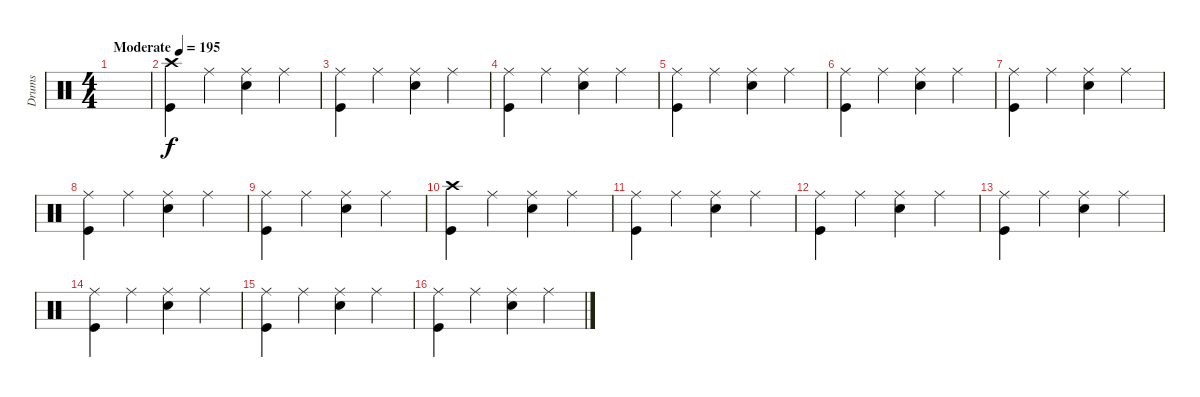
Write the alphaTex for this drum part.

\track ("Drums" "Drums") {instrument percussion}
\staff {score}
\articulation defaults
\ts (4 4)
\tempo (195 "Moderate")
\clef neutral
\ks c
|
("Crash high (hit)" "Kick (hit)").4 "Ride (middle)".4 ("Ride (middle)" "Electric Snare (hit)").4 "Ride (middle)".4 |
("Ride (middle)" "Kick (hit)").4 "Ride (middle)".4 ("Ride (middle)" "Electric Snare (hit)").4 "Ride (middle)".4 |
("Ride (middle)" "Kick (hit)").4 "Ride (middle)".4 ("Ride (middle)" "Electric Snare (hit)").4 "Ride (middle)".4 |
("Ride (middle)" "Kick (hit)").4 "Ride (middle)".4 ("Ride (middle)" "Electric Snare (hit)").4 "Ride (middle)".4 |
("Ride (middle)" "Kick (hit)").4 "Ride (middle)".4 ("Ride (middle)" "Electric Snare (hit)").4 "Ride (middle)".4 |
("Ride (middle)" "Kick (hit)").4 "Ride (middle)".4 ("Ride (middle)" "Electric Snare (hit)").4 "Ride (middle)".4 |
("Ride (middle)" "Kick (hit)").4 "Ride (middle)".4 ("Ride (middle)" "Electric Snare (hit)").4 "Ride (middle)".4 |
("Ride (middle)" "Kick (hit)").4 "Ride (middle)".4 ("Ride (middle)" "Electric Snare (hit)").4 "Ride (middle)".4 |
("Crash high (hit)" "Kick (hit)").4 "Ride (middle)".4 ("Ride (middle)" "Electric Snare (hit)").4 "Ride (middle)".4 |
("Ride (middle)" "Kick (hit)").4 "Ride (middle)".4 ("Ride (middle)" "Electric Snare (hit)").4 "Ride (middle)".4 |
("Ride (middle)" "Kick (hit)").4 "Ride (middle)".4 ("Ride (middle)" "Electric Snare (hit)").4 "Ride (middle)".4 |
("Ride (middle)" "Kick (hit)").4 "Ride (middle)".4 ("Ride (middle)" "Electric Snare (hit)").4 "Ride (middle)".4 |
("Ride (middle)" "Kick (hit)").4 "Ride (middle)".4 ("Ride (middle)" "Electric Snare (hit)").4 "Ride (middle)".4 |
("Ride (middle)" "Kick (hit)").4 "Ride (middle)".4 ("Ride (middle)" "Electric Snare (hit)").4 "Ride (middle)".4 |
("Ride (middle)" "Kick (hit)").4 "Ride (middle)".4 ("Ride (middle)" "Electric Snare (hit)").4 "Ride (middle)".4
